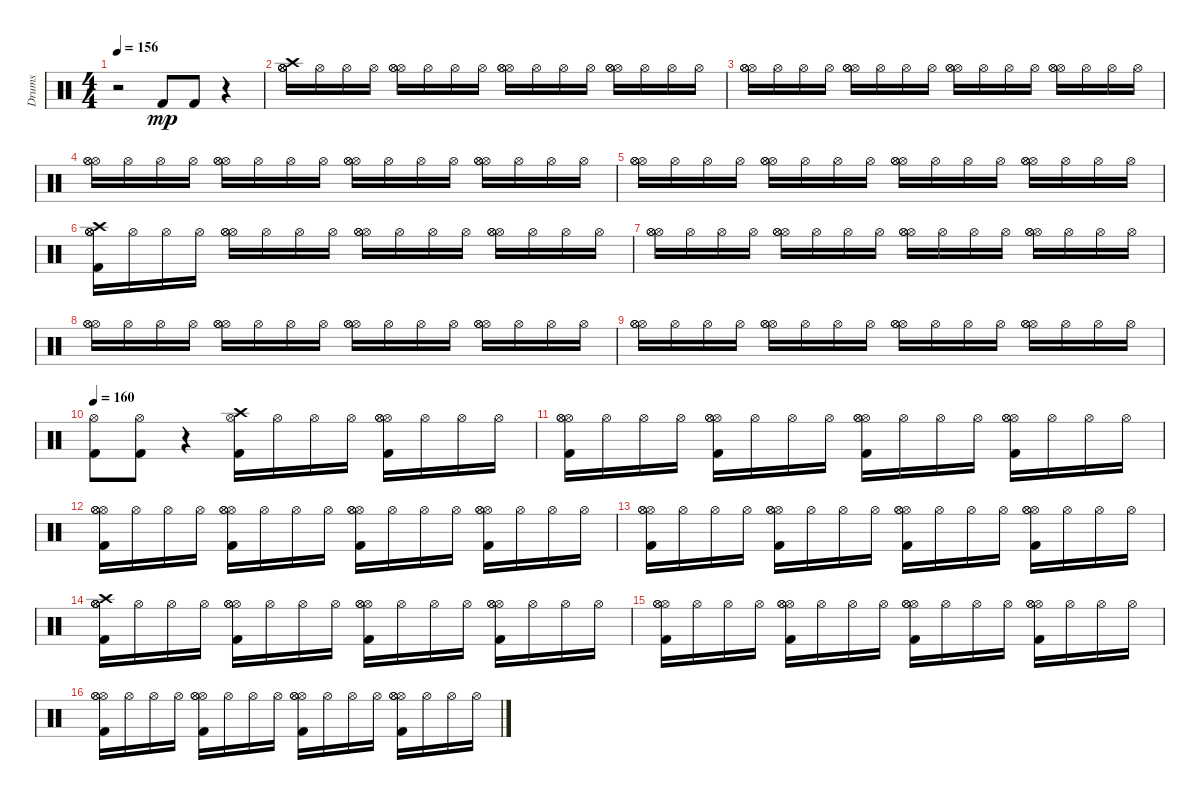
\track ("Drums" "Drums") {instrument percussion}
\staff {score}
\articulation defaults
\ts (4 4)
\tempo 156
\tempo 167
\tempo 156
\clef neutral
\ks c
r.2{dy mp} "Kick (hit) 2".8 "Kick (hit) 2".8 r.4 |
("Hi-Hat (open)" "Hi-Hat (open)" "Crash high (hit)" "Hi-Hat (open)").16 "Hi-Hat (open)".16 "Hi-Hat (open)".16 "Hi-Hat (open)".16 ("Hi-Hat (open)" "Hi-Hat (open)" "Hi-Hat (open)").16 "Hi-Hat (open)".16 "Hi-Hat (open)".16 "Hi-Hat (open)".16 ("Hi-Hat (open)" "Hi-Hat (open)" "Hi-Hat (open)").16 "Hi-Hat (open)".16 "Hi-Hat (open)".16 "Hi-Hat (open)".16 ("Hi-Hat (open)" "Hi-Hat (open)" "Hi-Hat (open)").16 "Hi-Hat (open)".16 "Hi-Hat (open)".16 "Hi-Hat (open)".16 |
("Hi-Hat (open)" "Hi-Hat (open)" "Hi-Hat (open)").16 "Hi-Hat (open)".16 "Hi-Hat (open)".16 "Hi-Hat (open)".16 ("Hi-Hat (open)" "Hi-Hat (open)" "Hi-Hat (open)").16 "Hi-Hat (open)".16 "Hi-Hat (open)".16 "Hi-Hat (open)".16 ("Hi-Hat (open)" "Hi-Hat (open)" "Hi-Hat (open)").16 "Hi-Hat (open)".16 "Hi-Hat (open)".16 "Hi-Hat (open)".16 ("Hi-Hat (open)" "Hi-Hat (open)" "Hi-Hat (open)").16 "Hi-Hat (open)".16 "Hi-Hat (open)".16 "Hi-Hat (open)".16 |
("Hi-Hat (open)" "Hi-Hat (open)" "Hi-Hat (open)").16 "Hi-Hat (open)".16 "Hi-Hat (open)".16 "Hi-Hat (open)".16 ("Hi-Hat (open)" "Hi-Hat (open)" "Hi-Hat (open)").16 "Hi-Hat (open)".16 "Hi-Hat (open)".16 "Hi-Hat (open)".16 ("Hi-Hat (open)" "Hi-Hat (open)" "Hi-Hat (open)").16 "Hi-Hat (open)".16 "Hi-Hat (open)".16 "Hi-Hat (open)".16 ("Hi-Hat (open)" "Hi-Hat (open)" "Hi-Hat (open)").16 "Hi-Hat (open)".16 "Hi-Hat (open)".16 "Hi-Hat (open)".16 |
("Hi-Hat (open)" "Hi-Hat (open)" "Hi-Hat (open)").16 "Hi-Hat (open)".16 "Hi-Hat (open)".16 "Hi-Hat (open)".16 ("Hi-Hat (open)" "Hi-Hat (open)" "Hi-Hat (open)").16 "Hi-Hat (open)".16 "Hi-Hat (open)".16 "Hi-Hat (open)".16 ("Hi-Hat (open)" "Hi-Hat (open)" "Hi-Hat (open)").16 "Hi-Hat (open)".16 "Hi-Hat (open)".16 "Hi-Hat (open)".16 ("Hi-Hat (open)" "Hi-Hat (open)" "Hi-Hat (open)").16 "Hi-Hat (open)".16 "Hi-Hat (open)".16 "Hi-Hat (open)".16 |
("Hi-Hat (open)" "Hi-Hat (open)" "Crash high (hit)" "Hi-Hat (open)" "Kick (hit) 2").16 "Hi-Hat (open)".16 "Hi-Hat (open)".16 "Hi-Hat (open)".16 ("Hi-Hat (open)" "Hi-Hat (open)" "Hi-Hat (open)").16 "Hi-Hat (open)".16 "Hi-Hat (open)".16 "Hi-Hat (open)".16 ("Hi-Hat (open)" "Hi-Hat (open)" "Hi-Hat (open)").16 "Hi-Hat (open)".16 "Hi-Hat (open)".16 "Hi-Hat (open)".16 ("Hi-Hat (open)" "Hi-Hat (open)" "Hi-Hat (open)").16 "Hi-Hat (open)".16 "Hi-Hat (open)".16 "Hi-Hat (open)".16 |
("Hi-Hat (open)" "Hi-Hat (open)" "Hi-Hat (open)").16 "Hi-Hat (open)".16 "Hi-Hat (open)".16 "Hi-Hat (open)".16 ("Hi-Hat (open)" "Hi-Hat (open)" "Hi-Hat (open)").16 "Hi-Hat (open)".16 "Hi-Hat (open)".16 "Hi-Hat (open)".16 ("Hi-Hat (open)" "Hi-Hat (open)" "Hi-Hat (open)").16 "Hi-Hat (open)".16 "Hi-Hat (open)".16 "Hi-Hat (open)".16 ("Hi-Hat (open)" "Hi-Hat (open)" "Hi-Hat (open)").16 "Hi-Hat (open)".16 "Hi-Hat (open)".16 "Hi-Hat (open)".16 |
("Hi-Hat (open)" "Hi-Hat (open)" "Hi-Hat (open)").16 "Hi-Hat (open)".16 "Hi-Hat (open)".16 "Hi-Hat (open)".16 ("Hi-Hat (open)" "Hi-Hat (open)" "Hi-Hat (open)").16 "Hi-Hat (open)".16 "Hi-Hat (open)".16 "Hi-Hat (open)".16 ("Hi-Hat (open)" "Hi-Hat (open)" "Hi-Hat (open)").16 "Hi-Hat (open)".16 "Hi-Hat (open)".16 "Hi-Hat (open)".16 ("Hi-Hat (open)" "Hi-Hat (open)" "Hi-Hat (open)").16 "Hi-Hat (open)".16 "Hi-Hat (open)".16 "Hi-Hat (open)".16 |
("Hi-Hat (open)" "Hi-Hat (open)" "Hi-Hat (open)").16 "Hi-Hat (open)".16 "Hi-Hat (open)".16 "Hi-Hat (open)".16 ("Hi-Hat (open)" "Hi-Hat (open)" "Hi-Hat (open)").16 "Hi-Hat (open)".16 "Hi-Hat (open)".16 "Hi-Hat (open)".16 ("Hi-Hat (open)" "Hi-Hat (open)" "Hi-Hat (open)").16 "Hi-Hat (open)".16 "Hi-Hat (open)".16 "Hi-Hat (open)".16 ("Hi-Hat (open)" "Hi-Hat (open)" "Hi-Hat (open)").16 "Hi-Hat (open)".16 "Hi-Hat (open)".16 "Hi-Hat (open)".16 |
\tempo 160
("Kick (hit) 2" "Hi-Hat (open)").8 ("Hi-Hat (open)" "Kick (hit) 2").8 r.4 ("Crash high (hit)" "Kick (hit) 2" "Hi-Hat (open)").16 "Hi-Hat (open)".16 "Hi-Hat (open)".16 "Hi-Hat (open)".16 ("Hi-Hat (open)" "Hi-Hat (open)" "Hi-Hat (open)" "Kick (hit) 2").16 "Hi-Hat (open)".16 "Hi-Hat (open)".16 "Hi-Hat (open)".16 |
("Kick (hit) 2" "Hi-Hat (open)" "Hi-Hat (open)" "Hi-Hat (open)").16 "Hi-Hat (open)".16 "Hi-Hat (open)".16 "Hi-Hat (open)".16 ("Hi-Hat (open)" "Kick (hit) 2" "Hi-Hat (open)" "Hi-Hat (open)").16 "Hi-Hat (open)".16 "Hi-Hat (open)".16 "Hi-Hat (open)".16 ("Hi-Hat (open)" "Hi-Hat (open)" "Hi-Hat (open)" "Kick (hit) 2").16 "Hi-Hat (open)".16 "Hi-Hat (open)".16 "Hi-Hat (open)".16 ("Hi-Hat (open)" "Kick (hit) 2" "Hi-Hat (open)" "Hi-Hat (open)").16 "Hi-Hat (open)".16 "Hi-Hat (open)".16 "Hi-Hat (open)".16 |
("Hi-Hat (open)" "Kick (hit) 2" "Hi-Hat (open)" "Hi-Hat (open)").16 "Hi-Hat (open)".16 "Hi-Hat (open)".16 "Hi-Hat (open)".16 ("Hi-Hat (open)" "Hi-Hat (open)" "Kick (hit) 2" "Hi-Hat (open)").16 "Hi-Hat (open)".16 "Hi-Hat (open)".16 "Hi-Hat (open)".16 ("Hi-Hat (open)" "Kick (hit) 2" "Hi-Hat (open)" "Hi-Hat (open)").16 "Hi-Hat (open)".16 "Hi-Hat (open)".16 "Hi-Hat (open)".16 ("Kick (hit) 2" "Hi-Hat (open)" "Hi-Hat (open)" "Hi-Hat (open)").16 "Hi-Hat (open)".16 "Hi-Hat (open)".16 "Hi-Hat (open)".16 |
("Hi-Hat (open)" "Hi-Hat (open)" "Kick (hit) 2" "Hi-Hat (open)").16 "Hi-Hat (open)".16 "Hi-Hat (open)".16 "Hi-Hat (open)".16 ("Hi-Hat (open)" "Kick (hit) 2" "Hi-Hat (open)" "Hi-Hat (open)").16 "Hi-Hat (open)".16 "Hi-Hat (open)".16 "Hi-Hat (open)".16 ("Hi-Hat (open)" "Hi-Hat (open)" "Hi-Hat (open)" "Kick (hit) 2").16 "Hi-Hat (open)".16 "Hi-Hat (open)".16 "Hi-Hat (open)".16 ("Kick (hit) 2" "Hi-Hat (open)" "Hi-Hat (open)" "Hi-Hat (open)").16 "Hi-Hat (open)".16 "Hi-Hat (open)".16 "Hi-Hat (open)".16 |
("Hi-Hat (open)" "Hi-Hat (open)" "Kick (hit) 2" "Crash high (hit)" "Hi-Hat (open)").16 "Hi-Hat (open)".16 "Hi-Hat (open)".16 "Hi-Hat (open)".16 ("Hi-Hat (open)" "Hi-Hat (open)" "Hi-Hat (open)" "Kick (hit) 2").16 "Hi-Hat (open)".16 "Hi-Hat (open)".16 "Hi-Hat (open)".16 ("Kick (hit) 2" "Hi-Hat (open)" "Hi-Hat (open)" "Hi-Hat (open)").16 "Hi-Hat (open)".16 "Hi-Hat (open)".16 "Hi-Hat (open)".16 ("Hi-Hat (open)" "Hi-Hat (open)" "Kick (hit) 2" "Hi-Hat (open)").16 "Hi-Hat (open)".16 "Hi-Hat (open)".16 "Hi-Hat (open)".16 |
("Kick (hit) 2" "Hi-Hat (open)" "Hi-Hat (open)" "Hi-Hat (open)").16 "Hi-Hat (open)".16 "Hi-Hat (open)".16 "Hi-Hat (open)".16 ("Kick (hit) 2" "Hi-Hat (open)" "Hi-Hat (open)" "Hi-Hat (open)").16 "Hi-Hat (open)".16 "Hi-Hat (open)".16 "Hi-Hat (open)".16 ("Hi-Hat (open)" "Hi-Hat (open)" "Kick (hit) 2" "Hi-Hat (open)").16 "Hi-Hat (open)".16 "Hi-Hat (open)".16 "Hi-Hat (open)".16 ("Hi-Hat (open)" "Hi-Hat (open)" "Hi-Hat (open)" "Kick (hit) 2").16 "Hi-Hat (open)".16 "Hi-Hat (open)".16 "Hi-Hat (open)".16 |
("Hi-Hat (open)" "Hi-Hat (open)" "Kick (hit) 2" "Hi-Hat (open)").16 "Hi-Hat (open)".16 "Hi-Hat (open)".16 "Hi-Hat (open)".16 ("Kick (hit) 2" "Hi-Hat (open)" "Hi-Hat (open)" "Hi-Hat (open)").16 "Hi-Hat (open)".16 "Hi-Hat (open)".16 "Hi-Hat (open)".16 ("Hi-Hat (open)" "Hi-Hat (open)" "Kick (hit) 2" "Hi-Hat (open)").16 "Hi-Hat (open)".16 "Hi-Hat (open)".16 "Hi-Hat (open)".16 ("Hi-Hat (open)" "Hi-Hat (open)" "Kick (hit) 2" "Hi-Hat (open)").16 "Hi-Hat (open)".16 "Hi-Hat (open)".16 "Hi-Hat (open)".16
